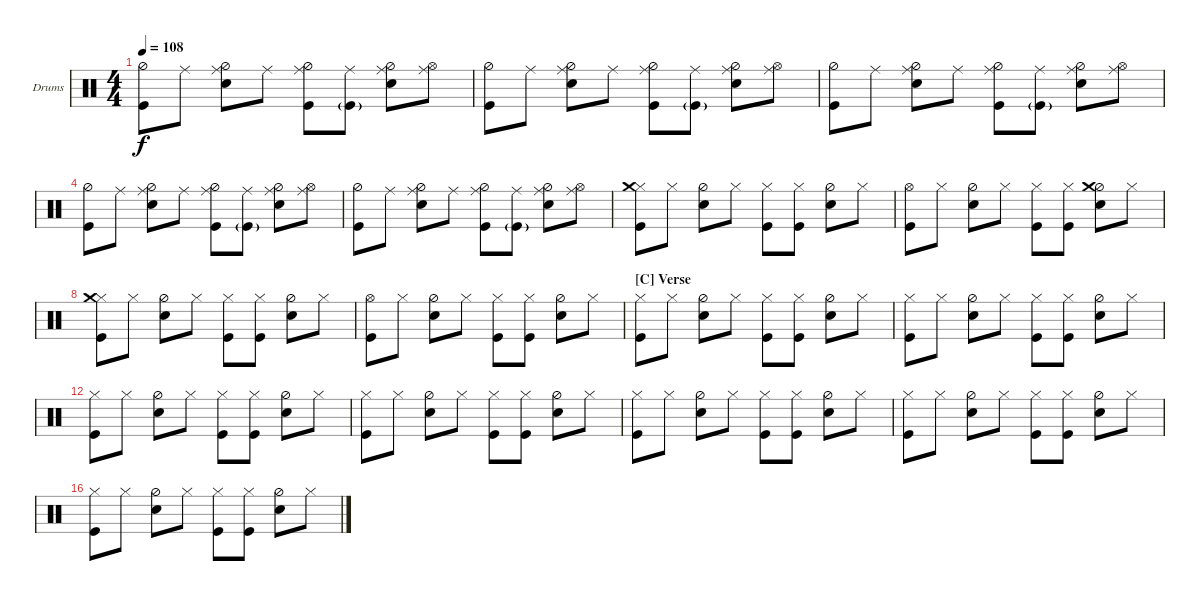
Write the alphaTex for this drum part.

\defaultSystemsLayout 4
\bracketExtendMode nobrackets
\firstSystemTrackNameOrientation horizontal
\otherSystemsTrackNameOrientation horizontal
\defaultBarNumberDisplay FirstOfSystem
\track ("Drumkit" "Drums") {instrument percussion}
\staff {score}
\articulation defaults
\ts (4 4)
\tempo 108
\clef neutral
\ks c
("Kick (hit)" "Hi-Hat (half)").8{dy f} "Ride (middle)".8 ("Snare (hit) 2" "Hi-Hat (half)" "Ride (middle)").8 "Ride (middle)".8 ("Kick (hit)" "Hi-Hat (half)" "Ride (middle)").8 ("Kick (hit)"{g} "Ride (middle)").8 ("Snare (hit) 2" "Hi-Hat (half)" "Ride (middle)").8 ("Hi-Hat (open)" "Ride (middle)").8 |
\scale
0.264781 ("Kick (hit)" "Hi-Hat (half)").8 "Ride (middle)".8 ("Snare (hit) 2" "Hi-Hat (half)" "Ride (middle)").8 "Ride (middle)".8 ("Kick (hit)" "Hi-Hat (half)" "Ride (middle)").8 ("Kick (hit)"{g} "Ride (middle)").8 ("Snare (hit) 2" "Hi-Hat (half)" "Ride (middle)").8 ("Hi-Hat (open)" "Ride (middle)").8 |
\scale
0.264781 ("Kick (hit)" "Hi-Hat (half)").8 "Ride (middle)".8 ("Snare (hit) 2" "Hi-Hat (half)" "Ride (middle)").8 "Ride (middle)".8 ("Kick (hit)" "Hi-Hat (half)" "Ride (middle)").8 ("Kick (hit)"{g} "Ride (middle)").8 ("Snare (hit) 2" "Hi-Hat (half)" "Ride (middle)").8 ("Hi-Hat (open)" "Ride (middle)").8 |
\scale
0.254213 ("Kick (hit)" "Hi-Hat (half)").8 "Ride (middle)".8 ("Snare (hit) 2" "Hi-Hat (half)" "Ride (middle)").8 "Ride (middle)".8 ("Kick (hit)" "Hi-Hat (half)" "Ride (middle)").8 ("Kick (hit)"{g} "Ride (middle)").8 ("Snare (hit) 2" "Hi-Hat (half)" "Ride (middle)").8 ("Hi-Hat (open)" "Ride (middle)").8 |
\scale
0.216639 ("Kick (hit)" "Hi-Hat (half)").8 "Ride (middle)".8 ("Snare (hit) 2" "Hi-Hat (half)" "Ride (middle)").8 "Ride (middle)".8 ("Kick (hit)" "Hi-Hat (half)" "Ride (middle)").8 ("Kick (hit)"{g} "Ride (middle)").8 ("Snare (hit) 2" "Hi-Hat (half)" "Ride (middle)").8 ("Hi-Hat (open)" "Ride (middle)").8 |
("Kick (hit)" "Hi-Hat (closed)" "Crash medium (hit)").8 "Hi-Hat (closed)".8 ("Snare (hit) 2" "Hi-Hat (half)").8 "Hi-Hat (closed)".8 ("Hi-Hat (closed)" "Kick (hit)").8 ("Hi-Hat (closed)" "Kick (hit)").8 ("Snare (hit) 2" "Hi-Hat (half)").8 "Hi-Hat (closed)".8 |
("Kick (hit)" "Hi-Hat (open)").8 "Hi-Hat (closed)".8 ("Snare (hit) 2" "Hi-Hat (half)").8 "Hi-Hat (closed)".8 ("Kick (hit)" "Hi-Hat (closed)").8 ("Hi-Hat (closed)" "Kick (hit)").8 ("Snare (hit) 2" "Hi-Hat (half)" "Crash medium (hit)").8 "Hi-Hat (closed)".8 |
("Kick (hit)" "Hi-Hat (closed)" "Crash medium (hit)").8 "Hi-Hat (closed)".8 ("Snare (hit) 2" "Hi-Hat (half)").8 "Hi-Hat (closed)".8 ("Hi-Hat (closed)" "Kick (hit)").8 ("Hi-Hat (closed)" "Kick (hit)").8 ("Snare (hit) 2" "Hi-Hat (half)").8 "Hi-Hat (closed)".8 |
("Kick (hit)" "Hi-Hat (open)").8 "Hi-Hat (closed)".8 ("Snare (hit) 2" "Hi-Hat (half)").8 "Hi-Hat (closed)".8 ("Hi-Hat (closed)" "Kick (hit)").8 ("Hi-Hat (closed)" "Kick (hit)").8 ("Snare (hit) 2" "Hi-Hat (half)").8 "Hi-Hat (closed)".8 |
\section ("C" "Verse")
("Kick (hit)" "Hi-Hat (closed)").8 "Hi-Hat (closed)".8 ("Snare (hit) 2" "Hi-Hat (half)").8 "Hi-Hat (closed)".8 ("Hi-Hat (closed)" "Kick (hit)").8 ("Hi-Hat (closed)" "Kick (hit)").8 ("Snare (hit) 2" "Hi-Hat (half)").8 "Hi-Hat (closed)".8 |
("Kick (hit)" "Hi-Hat (closed)").8 "Hi-Hat (closed)".8 ("Snare (hit) 2" "Hi-Hat (half)").8 "Hi-Hat (closed)".8 ("Kick (hit)" "Hi-Hat (closed)").8 ("Hi-Hat (closed)" "Kick (hit)").8 ("Snare (hit) 2" "Hi-Hat (half)").8 "Hi-Hat (closed)".8 |
("Kick (hit)" "Hi-Hat (closed)").8 "Hi-Hat (closed)".8 ("Snare (hit) 2" "Hi-Hat (half)").8 "Hi-Hat (closed)".8 ("Hi-Hat (closed)" "Kick (hit)").8 ("Hi-Hat (closed)" "Kick (hit)").8 ("Snare (hit) 2" "Hi-Hat (half)").8 "Hi-Hat (closed)".8 |
("Kick (hit)" "Hi-Hat (closed)").8 "Hi-Hat (closed)".8 ("Snare (hit) 2" "Hi-Hat (half)").8 "Hi-Hat (closed)".8 ("Hi-Hat (closed)" "Kick (hit)").8 ("Hi-Hat (closed)" "Kick (hit)").8 ("Snare (hit) 2" "Hi-Hat (half)").8 "Hi-Hat (closed)".8 |
("Kick (hit)" "Hi-Hat (closed)").8 "Hi-Hat (closed)".8 ("Snare (hit) 2" "Hi-Hat (half)").8 "Hi-Hat (closed)".8 ("Hi-Hat (closed)" "Kick (hit)").8 ("Hi-Hat (closed)" "Kick (hit)").8 ("Snare (hit) 2" "Hi-Hat (half)").8 "Hi-Hat (closed)".8 |
("Kick (hit)" "Hi-Hat (closed)").8 "Hi-Hat (closed)".8 ("Snare (hit) 2" "Hi-Hat (half)").8 "Hi-Hat (closed)".8 ("Kick (hit)" "Hi-Hat (closed)").8 ("Hi-Hat (closed)" "Kick (hit)").8 ("Snare (hit) 2" "Hi-Hat (half)").8 "Hi-Hat (closed)".8 |
("Kick (hit)" "Hi-Hat (closed)").8 "Hi-Hat (closed)".8 ("Snare (hit) 2" "Hi-Hat (half)").8 "Hi-Hat (closed)".8 ("Hi-Hat (closed)" "Kick (hit)").8 ("Hi-Hat (closed)" "Kick (hit)").8 ("Snare (hit) 2" "Hi-Hat (half)").8 "Hi-Hat (closed)".8
